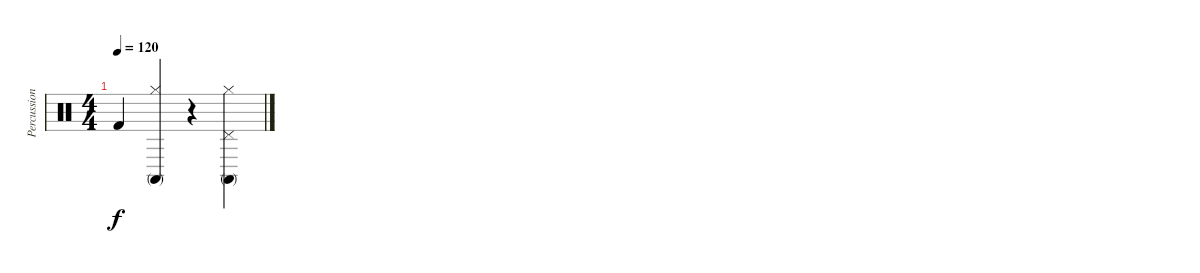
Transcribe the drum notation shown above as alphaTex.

\track ("Percussion" "Percussion") {instrument percussion}
\staff {score}
\articulation defaults
\ts (4 4)
\tempo 120
\clef neutral
\ks c "Kick (hit) 2".4{dy f}
("Hi-Hat (closed)" "Conga high (mute)").4 r.4 ("Pedal Hi-Hat (hit)" "Hi-Hat (closed)" "Conga high (mute)").4
